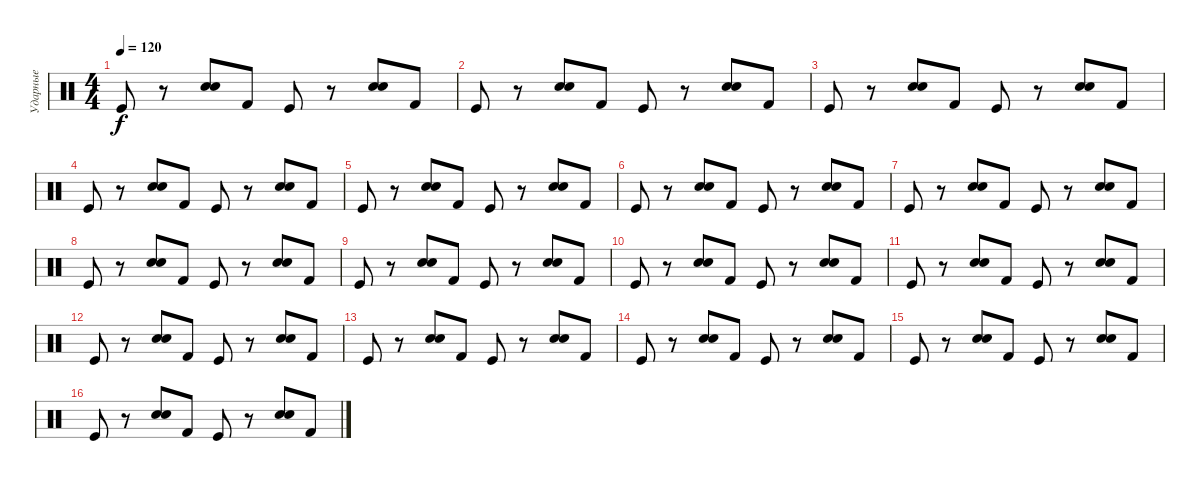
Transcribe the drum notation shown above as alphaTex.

\track ("Ударные" "Ударные") {instrument percussion}
\staff {score}
\articulation defaults
\ts (4 4)
\tempo 120
\clef neutral
\ks c "Kick (hit)".8{dy f}
r.8 ("Electric Snare (hit)" "Snare (hit) 2").8 "Kick (hit) 2".8 "Kick (hit)".8 r.8 ("Electric Snare (hit)" "Snare (hit) 2").8 "Kick (hit) 2".8 |
"Kick (hit)".8 r.8 ("Electric Snare (hit)" "Snare (hit) 2").8 "Kick (hit) 2".8 "Kick (hit)".8 r.8 ("Electric Snare (hit)" "Snare (hit) 2").8 "Kick (hit) 2".8 |
"Kick (hit)".8 r.8 ("Electric Snare (hit)" "Snare (hit) 2").8 "Kick (hit) 2".8 "Kick (hit)".8 r.8 ("Electric Snare (hit)" "Snare (hit) 2").8 "Kick (hit) 2".8 |
"Kick (hit)".8 r.8 ("Electric Snare (hit)" "Snare (hit) 2").8 "Kick (hit) 2".8 "Kick (hit)".8 r.8 ("Electric Snare (hit)" "Snare (hit) 2").8 "Kick (hit) 2".8 |
"Kick (hit)".8 r.8 ("Electric Snare (hit)" "Snare (hit) 2").8 "Kick (hit) 2".8 "Kick (hit)".8 r.8 ("Electric Snare (hit)" "Snare (hit) 2").8 "Kick (hit) 2".8 |
"Kick (hit)".8 r.8 ("Electric Snare (hit)" "Snare (hit) 2").8 "Kick (hit) 2".8 "Kick (hit)".8 r.8 ("Electric Snare (hit)" "Snare (hit) 2").8 "Kick (hit) 2".8 |
"Kick (hit)".8 r.8 ("Electric Snare (hit)" "Snare (hit) 2").8 "Kick (hit) 2".8 "Kick (hit)".8 r.8 ("Electric Snare (hit)" "Snare (hit) 2").8 "Kick (hit) 2".8 |
"Kick (hit)".8 r.8 ("Electric Snare (hit)" "Snare (hit) 2").8 "Kick (hit) 2".8 "Kick (hit)".8 r.8 ("Electric Snare (hit)" "Snare (hit) 2").8 "Kick (hit) 2".8 |
"Kick (hit)".8 r.8 ("Electric Snare (hit)" "Snare (hit) 2").8 "Kick (hit) 2".8 "Kick (hit)".8 r.8 ("Electric Snare (hit)" "Snare (hit) 2").8 "Kick (hit) 2".8 |
"Kick (hit)".8 r.8 ("Electric Snare (hit)" "Snare (hit) 2").8 "Kick (hit) 2".8 "Kick (hit)".8 r.8 ("Electric Snare (hit)" "Snare (hit) 2").8 "Kick (hit) 2".8 |
"Kick (hit)".8 r.8 ("Electric Snare (hit)" "Snare (hit) 2").8 "Kick (hit) 2".8 "Kick (hit)".8 r.8 ("Electric Snare (hit)" "Snare (hit) 2").8 "Kick (hit) 2".8 |
"Kick (hit)".8 r.8 ("Electric Snare (hit)" "Snare (hit) 2").8 "Kick (hit) 2".8 "Kick (hit)".8 r.8 ("Electric Snare (hit)" "Snare (hit) 2").8 "Kick (hit) 2".8 |
"Kick (hit)".8 r.8 ("Electric Snare (hit)" "Snare (hit) 2").8 "Kick (hit) 2".8 "Kick (hit)".8 r.8 ("Electric Snare (hit)" "Snare (hit) 2").8 "Kick (hit) 2".8 |
"Kick (hit)".8 r.8 ("Electric Snare (hit)" "Snare (hit) 2").8 "Kick (hit) 2".8 "Kick (hit)".8 r.8 ("Electric Snare (hit)" "Snare (hit) 2").8 "Kick (hit) 2".8 |
"Kick (hit)".8 r.8 ("Electric Snare (hit)" "Snare (hit) 2").8 "Kick (hit) 2".8 "Kick (hit)".8 r.8 ("Electric Snare (hit)" "Snare (hit) 2").8 "Kick (hit) 2".8 |
"Kick (hit)".8 r.8 ("Electric Snare (hit)" "Snare (hit) 2").8 "Kick (hit) 2".8 "Kick (hit)".8 r.8 ("Electric Snare (hit)" "Snare (hit) 2").8 "Kick (hit) 2".8
